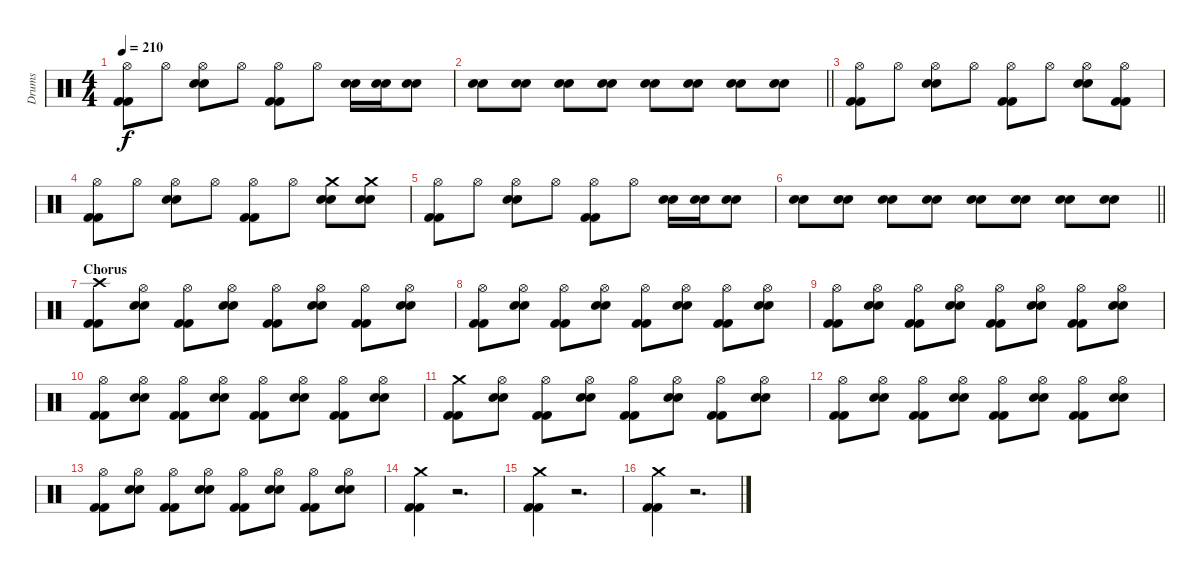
\track ("Drums" "Drums") {instrument percussion}
\staff {score}
\articulation defaults
\ts (4 4)
\tempo 210
\clef neutral
\ks c
("Hi-Hat (open)" "Kick (hit) 2" "Kick (hit) 2").8{dy f} "Hi-Hat (open)".8 ("Hi-Hat (open)" "Snare (hit) 2" "Snare (hit) 2").8 "Hi-Hat (open)".8 ("Hi-Hat (open)" "Kick (hit) 2" "Kick (hit) 2").8 "Hi-Hat (open)".8 ("Snare (hit) 2" "Snare (hit) 2").16 ("Snare (hit) 2" "Snare (hit) 2").16 ("Snare (hit) 2" "Snare (hit) 2").8 |
\barLineRight lightlight
("Snare (hit) 2" "Snare (hit) 2").8 ("Snare (hit) 2" "Snare (hit) 2").8 ("Snare (hit) 2" "Snare (hit) 2").8 ("Snare (hit) 2" "Snare (hit) 2").8 ("Snare (hit) 2" "Snare (hit) 2").8 ("Snare (hit) 2" "Snare (hit) 2").8 ("Snare (hit) 2" "Snare (hit) 2").8 ("Snare (hit) 2" "Snare (hit) 2").8 |
("Hi-Hat (open)" "Kick (hit) 2" "Kick (hit) 2").8 "Hi-Hat (open)".8 ("Hi-Hat (open)" "Snare (hit) 2" "Snare (hit) 2").8 "Hi-Hat (open)".8 ("Hi-Hat (open)" "Kick (hit) 2" "Kick (hit) 2").8 "Hi-Hat (open)".8 ("Hi-Hat (open)" "Snare (hit) 2" "Snare (hit) 2").8 ("Hi-Hat (open)" "Kick (hit) 2" "Kick (hit) 2").8 |
("Hi-Hat (open)" "Kick (hit) 2" "Kick (hit) 2").8 "Hi-Hat (open)".8 ("Hi-Hat (open)" "Snare (hit) 2" "Snare (hit) 2").8 "Hi-Hat (open)".8 ("Hi-Hat (open)" "Kick (hit) 2" "Kick (hit) 2").8 "Hi-Hat (open)".8 ("Crash medium (hit)" "Snare (hit) 2" "Snare (hit) 2").8 ("Crash medium (hit)" "Snare (hit) 2" "Snare (hit) 2").8 |
("Hi-Hat (open)" "Kick (hit) 2" "Kick (hit) 2").8 "Hi-Hat (open)".8 ("Hi-Hat (open)" "Snare (hit) 2" "Snare (hit) 2").8 "Hi-Hat (open)".8 ("Hi-Hat (open)" "Kick (hit) 2" "Kick (hit) 2").8 "Hi-Hat (open)".8 ("Snare (hit) 2" "Snare (hit) 2").16 ("Snare (hit) 2" "Snare (hit) 2").16 ("Snare (hit) 2" "Snare (hit) 2").8 |
\barLineRight lightlight
("Snare (hit) 2" "Snare (hit) 2").8 ("Snare (hit) 2" "Snare (hit) 2").8 ("Snare (hit) 2" "Snare (hit) 2").8 ("Snare (hit) 2" "Snare (hit) 2").8 ("Snare (hit) 2" "Snare (hit) 2").8 ("Snare (hit) 2" "Snare (hit) 2").8 ("Snare (hit) 2" "Snare (hit) 2").8 ("Snare (hit) 2" "Snare (hit) 2").8 |
\section ("" "Chorus")
("Crash high (hit)" "Kick (hit) 2" "Kick (hit) 2").8 ("Hi-Hat (open)" "Snare (hit) 2" "Snare (hit) 2").8 ("Hi-Hat (open)" "Kick (hit) 2" "Kick (hit) 2").8 ("Hi-Hat (open)" "Snare (hit) 2" "Snare (hit) 2").8 ("Hi-Hat (open)" "Kick (hit) 2" "Kick (hit) 2").8 ("Hi-Hat (open)" "Snare (hit) 2" "Snare (hit) 2").8 ("Hi-Hat (open)" "Kick (hit) 2" "Kick (hit) 2").8 ("Hi-Hat (open)" "Snare (hit) 2" "Snare (hit) 2").8 |
("Hi-Hat (open)" "Kick (hit) 2" "Kick (hit) 2").8 ("Hi-Hat (open)" "Snare (hit) 2" "Snare (hit) 2").8 ("Hi-Hat (open)" "Kick (hit) 2" "Kick (hit) 2").8 ("Hi-Hat (open)" "Snare (hit) 2" "Snare (hit) 2").8 ("Hi-Hat (open)" "Kick (hit) 2" "Kick (hit) 2").8 ("Hi-Hat (open)" "Snare (hit) 2" "Snare (hit) 2").8 ("Hi-Hat (open)" "Kick (hit) 2" "Kick (hit) 2").8 ("Hi-Hat (open)" "Snare (hit) 2" "Snare (hit) 2").8 |
("Hi-Hat (open)" "Kick (hit) 2" "Kick (hit) 2").8 ("Hi-Hat (open)" "Snare (hit) 2" "Snare (hit) 2").8 ("Hi-Hat (open)" "Kick (hit) 2" "Kick (hit) 2").8 ("Hi-Hat (open)" "Snare (hit) 2" "Snare (hit) 2").8 ("Hi-Hat (open)" "Kick (hit) 2" "Kick (hit) 2").8 ("Hi-Hat (open)" "Snare (hit) 2" "Snare (hit) 2").8 ("Hi-Hat (open)" "Kick (hit) 2" "Kick (hit) 2").8 ("Hi-Hat (open)" "Snare (hit) 2" "Snare (hit) 2").8 |
("Hi-Hat (open)" "Kick (hit) 2" "Kick (hit) 2").8 ("Hi-Hat (open)" "Snare (hit) 2" "Snare (hit) 2").8 ("Hi-Hat (open)" "Kick (hit) 2" "Kick (hit) 2").8 ("Hi-Hat (open)" "Snare (hit) 2" "Snare (hit) 2").8 ("Hi-Hat (open)" "Kick (hit) 2" "Kick (hit) 2").8 ("Hi-Hat (open)" "Snare (hit) 2" "Snare (hit) 2").8 ("Hi-Hat (open)" "Kick (hit) 2" "Kick (hit) 2").8 ("Hi-Hat (open)" "Snare (hit) 2" "Snare (hit) 2").8 |
("Crash medium (hit)" "Kick (hit) 2" "Kick (hit) 2").8 ("Hi-Hat (open)" "Snare (hit) 2" "Snare (hit) 2").8 ("Hi-Hat (open)" "Kick (hit) 2" "Kick (hit) 2").8 ("Hi-Hat (open)" "Snare (hit) 2" "Snare (hit) 2").8 ("Hi-Hat (open)" "Kick (hit) 2" "Kick (hit) 2").8 ("Hi-Hat (open)" "Snare (hit) 2" "Snare (hit) 2").8 ("Hi-Hat (open)" "Kick (hit) 2" "Kick (hit) 2").8 ("Hi-Hat (open)" "Snare (hit) 2" "Snare (hit) 2").8 |
("Hi-Hat (open)" "Kick (hit) 2" "Kick (hit) 2").8 ("Hi-Hat (open)" "Snare (hit) 2" "Snare (hit) 2").8 ("Hi-Hat (open)" "Kick (hit) 2" "Kick (hit) 2").8 ("Hi-Hat (open)" "Snare (hit) 2" "Snare (hit) 2").8 ("Hi-Hat (open)" "Kick (hit) 2" "Kick (hit) 2").8 ("Hi-Hat (open)" "Snare (hit) 2" "Snare (hit) 2").8 ("Hi-Hat (open)" "Kick (hit) 2" "Kick (hit) 2").8 ("Hi-Hat (open)" "Snare (hit) 2" "Snare (hit) 2").8 |
("Hi-Hat (open)" "Kick (hit) 2" "Kick (hit) 2").8 ("Hi-Hat (open)" "Snare (hit) 2" "Snare (hit) 2").8 ("Hi-Hat (open)" "Kick (hit) 2" "Kick (hit) 2").8 ("Hi-Hat (open)" "Snare (hit) 2" "Snare (hit) 2").8 ("Hi-Hat (open)" "Kick (hit) 2" "Kick (hit) 2").8 ("Hi-Hat (open)" "Snare (hit) 2" "Snare (hit) 2").8 ("Hi-Hat (open)" "Kick (hit) 2" "Kick (hit) 2").8 ("Hi-Hat (open)" "Snare (hit) 2" "Snare (hit) 2").8 |
("Crash medium (hit)" "Kick (hit) 2" "Kick (hit) 2").4 r.2{d} |
("Crash medium (hit)" "Kick (hit) 2" "Kick (hit) 2").4 r.2{d} |
("Crash medium (hit)" "Kick (hit) 2" "Kick (hit) 2").4 r.2{d}
